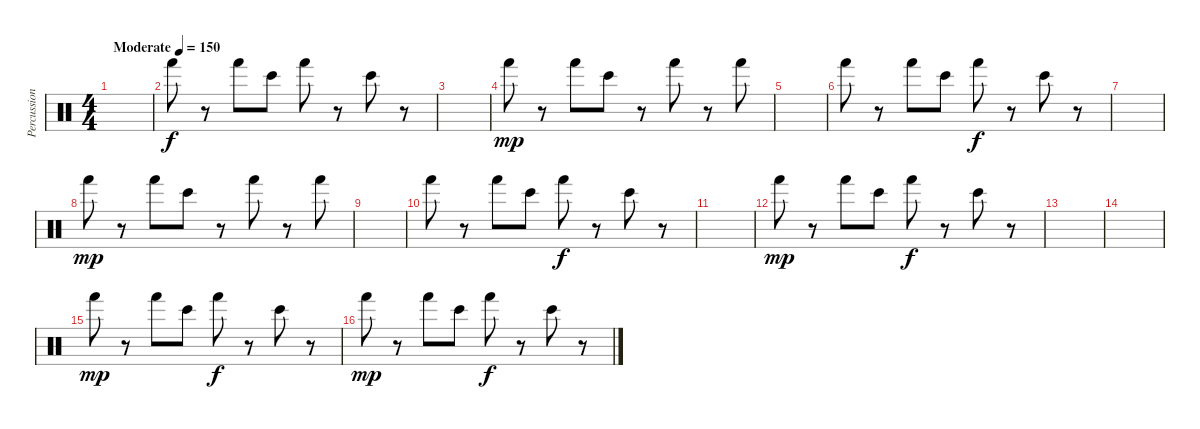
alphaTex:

\track ("Percussion" "Percussion") {instrument percussion}
\staff {score}
\articulation defaults
\ts (4 4)
\tempo (150 "Moderate")
\clef neutral
\ks c
|
"Hand (hit)".8 r.8 "Hand (hit)".8 "Bongo High (hit)".8 "Hand (hit)".8{dy f} r.8 "Bongo High (hit)".8 r.8 |
|
"Hand (hit)".8{dy mp} r.8 "Hand (hit)".8 "Bongo High (hit)".8 r.8 "Hand (hit)".8 r.8 "Hand (hit)".8 |
|
"Hand (hit)".8 r.8 "Hand (hit)".8 "Bongo High (hit)".8 "Hand (hit)".8{dy f} r.8 "Bongo High (hit)".8 r.8 |
|
"Hand (hit)".8{dy mp} r.8 "Hand (hit)".8 "Bongo High (hit)".8 r.8 "Hand (hit)".8 r.8 "Hand (hit)".8 |
|
"Hand (hit)".8 r.8 "Hand (hit)".8 "Bongo High (hit)".8 "Hand (hit)".8{dy f} r.8 "Bongo High (hit)".8 r.8 |
|
"Hand (hit)".8{dy mp} r.8 "Hand (hit)".8 "Bongo High (hit)".8 "Hand (hit)".8{dy f} r.8 "Bongo High (hit)".8 r.8 |
|
|
"Hand (hit)".8{dy mp} r.8 "Hand (hit)".8 "Bongo High (hit)".8 "Hand (hit)".8{dy f} r.8 "Bongo High (hit)".8 r.8 |
"Hand (hit)".8{dy mp} r.8 "Hand (hit)".8 "Bongo High (hit)".8 "Hand (hit)".8{dy f} r.8 "Bongo High (hit)".8 r.8
